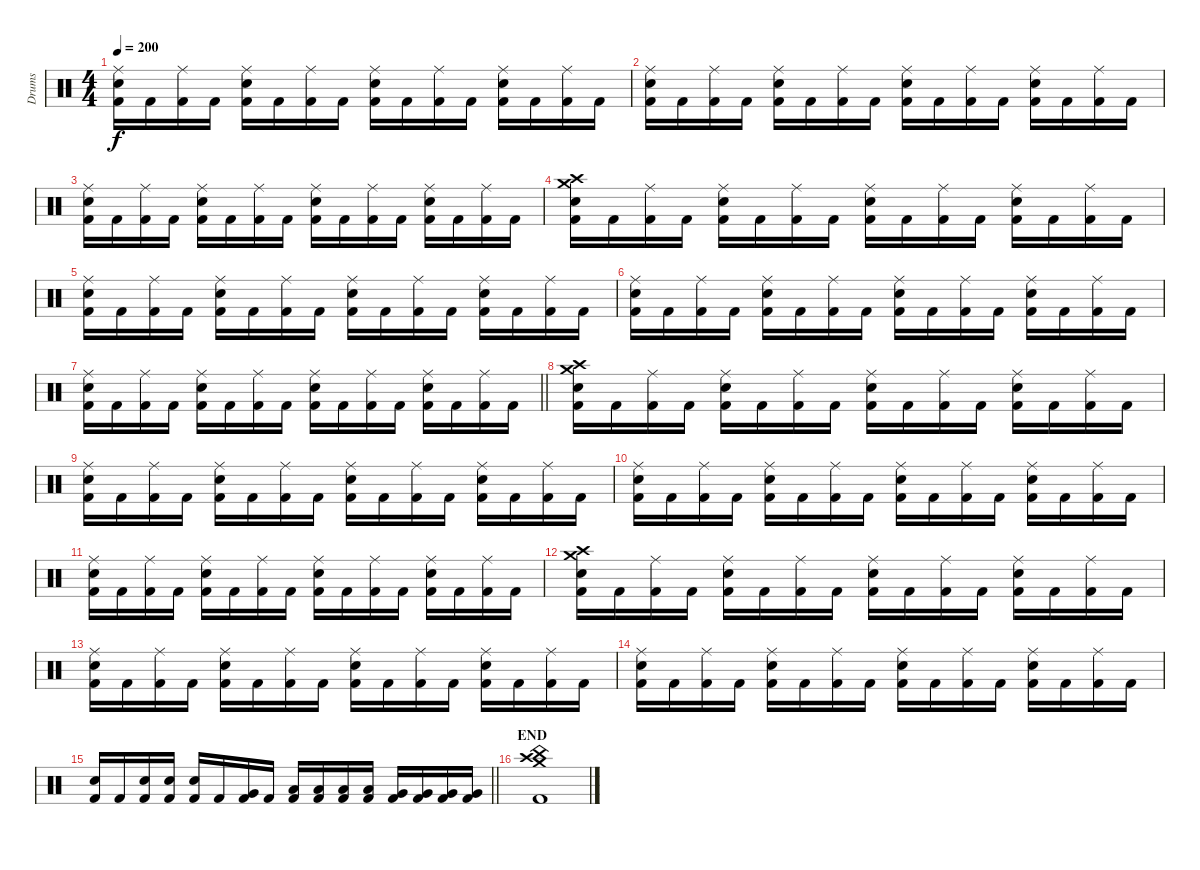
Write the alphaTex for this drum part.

\track ("Drums" "Drums") {instrument percussion}
\staff {score}
\articulation defaults
\ts (4 4)
\tempo 200
\clef neutral
\ks c
("Ride (middle)" "Electric Snare (hit)" "Kick (hit) 2").16{dy f} "Kick (hit) 2".16 ("Ride (middle)" "Kick (hit) 2").16 "Kick (hit) 2".16 ("Ride (middle)" "Electric Snare (hit)" "Kick (hit) 2").16 "Kick (hit) 2".16 ("Ride (middle)" "Kick (hit) 2").16 "Kick (hit) 2".16 ("Ride (middle)" "Electric Snare (hit)" "Kick (hit) 2").16 "Kick (hit) 2".16 ("Ride (middle)" "Kick (hit) 2").16 "Kick (hit) 2".16 ("Ride (middle)" "Electric Snare (hit)" "Kick (hit) 2").16 "Kick (hit) 2".16 ("Ride (middle)" "Kick (hit) 2").16 "Kick (hit) 2".16 |
("Ride (middle)" "Electric Snare (hit)" "Kick (hit) 2").16 "Kick (hit) 2".16 ("Ride (middle)" "Kick (hit) 2").16 "Kick (hit) 2".16 ("Ride (middle)" "Electric Snare (hit)" "Kick (hit) 2").16 "Kick (hit) 2".16 ("Ride (middle)" "Kick (hit) 2").16 "Kick (hit) 2".16 ("Ride (middle)" "Electric Snare (hit)" "Kick (hit) 2").16 "Kick (hit) 2".16 ("Ride (middle)" "Kick (hit) 2").16 "Kick (hit) 2".16 ("Ride (middle)" "Electric Snare (hit)" "Kick (hit) 2").16 "Kick (hit) 2".16 ("Ride (middle)" "Kick (hit) 2").16 "Kick (hit) 2".16 |
("Ride (middle)" "Electric Snare (hit)" "Kick (hit) 2").16 "Kick (hit) 2".16 ("Ride (middle)" "Kick (hit) 2").16 "Kick (hit) 2".16 ("Ride (middle)" "Electric Snare (hit)" "Kick (hit) 2").16 "Kick (hit) 2".16 ("Ride (middle)" "Kick (hit) 2").16 "Kick (hit) 2".16 ("Ride (middle)" "Electric Snare (hit)" "Kick (hit) 2").16 "Kick (hit) 2".16 ("Ride (middle)" "Kick (hit) 2").16 "Kick (hit) 2".16 ("Ride (middle)" "Electric Snare (hit)" "Kick (hit) 2").16 "Kick (hit) 2".16 ("Ride (middle)" "Kick (hit) 2").16 "Kick (hit) 2".16 |
("Crash medium (hit)" "Crash high (hit)" "Electric Snare (hit)" "Kick (hit) 2").16 "Kick (hit) 2".16 ("Ride (middle)" "Kick (hit) 2").16 "Kick (hit) 2".16 ("Ride (middle)" "Electric Snare (hit)" "Kick (hit) 2").16 "Kick (hit) 2".16 ("Ride (middle)" "Kick (hit) 2").16 "Kick (hit) 2".16 ("Ride (middle)" "Electric Snare (hit)" "Kick (hit) 2").16 "Kick (hit) 2".16 ("Ride (middle)" "Kick (hit) 2").16 "Kick (hit) 2".16 ("Ride (middle)" "Electric Snare (hit)" "Kick (hit) 2").16 "Kick (hit) 2".16 ("Ride (middle)" "Kick (hit) 2").16 "Kick (hit) 2".16 |
("Ride (middle)" "Electric Snare (hit)" "Kick (hit) 2").16 "Kick (hit) 2".16 ("Ride (middle)" "Kick (hit) 2").16 "Kick (hit) 2".16 ("Ride (middle)" "Electric Snare (hit)" "Kick (hit) 2").16 "Kick (hit) 2".16 ("Ride (middle)" "Kick (hit) 2").16 "Kick (hit) 2".16 ("Ride (middle)" "Electric Snare (hit)" "Kick (hit) 2").16 "Kick (hit) 2".16 ("Ride (middle)" "Kick (hit) 2").16 "Kick (hit) 2".16 ("Ride (middle)" "Electric Snare (hit)" "Kick (hit) 2").16 "Kick (hit) 2".16 ("Ride (middle)" "Kick (hit) 2").16 "Kick (hit) 2".16 |
("Ride (middle)" "Electric Snare (hit)" "Kick (hit) 2").16 "Kick (hit) 2".16 ("Ride (middle)" "Kick (hit) 2").16 "Kick (hit) 2".16 ("Ride (middle)" "Electric Snare (hit)" "Kick (hit) 2").16 "Kick (hit) 2".16 ("Ride (middle)" "Kick (hit) 2").16 "Kick (hit) 2".16 ("Ride (middle)" "Electric Snare (hit)" "Kick (hit) 2").16 "Kick (hit) 2".16 ("Ride (middle)" "Kick (hit) 2").16 "Kick (hit) 2".16 ("Ride (middle)" "Electric Snare (hit)" "Kick (hit) 2").16 "Kick (hit) 2".16 ("Ride (middle)" "Kick (hit) 2").16 "Kick (hit) 2".16 |
\barLineRight lightlight
("Ride (middle)" "Electric Snare (hit)" "Kick (hit) 2").16 "Kick (hit) 2".16 ("Ride (middle)" "Kick (hit) 2").16 "Kick (hit) 2".16 ("Ride (middle)" "Electric Snare (hit)" "Kick (hit) 2").16 "Kick (hit) 2".16 ("Ride (middle)" "Kick (hit) 2").16 "Kick (hit) 2".16 ("Ride (middle)" "Electric Snare (hit)" "Kick (hit) 2").16 "Kick (hit) 2".16 ("Ride (middle)" "Kick (hit) 2").16 "Kick (hit) 2".16 ("Ride (middle)" "Electric Snare (hit)" "Kick (hit) 2").16 "Kick (hit) 2".16 ("Ride (middle)" "Kick (hit) 2").16 "Kick (hit) 2".16 |
("Crash medium (hit)" "Crash high (hit)" "Electric Snare (hit)" "Kick (hit) 2").16 "Kick (hit) 2".16 ("Ride (middle)" "Kick (hit) 2").16 "Kick (hit) 2".16 ("Ride (middle)" "Electric Snare (hit)" "Kick (hit) 2").16 "Kick (hit) 2".16 ("Ride (middle)" "Kick (hit) 2").16 "Kick (hit) 2".16 ("Ride (middle)" "Electric Snare (hit)" "Kick (hit) 2").16 "Kick (hit) 2".16 ("Ride (middle)" "Kick (hit) 2").16 "Kick (hit) 2".16 ("Ride (middle)" "Electric Snare (hit)" "Kick (hit) 2").16 "Kick (hit) 2".16 ("Ride (middle)" "Kick (hit) 2").16 "Kick (hit) 2".16 |
("Ride (middle)" "Electric Snare (hit)" "Kick (hit) 2").16 "Kick (hit) 2".16 ("Ride (middle)" "Kick (hit) 2").16 "Kick (hit) 2".16 ("Ride (middle)" "Electric Snare (hit)" "Kick (hit) 2").16 "Kick (hit) 2".16 ("Ride (middle)" "Kick (hit) 2").16 "Kick (hit) 2".16 ("Ride (middle)" "Electric Snare (hit)" "Kick (hit) 2").16 "Kick (hit) 2".16 ("Ride (middle)" "Kick (hit) 2").16 "Kick (hit) 2".16 ("Ride (middle)" "Electric Snare (hit)" "Kick (hit) 2").16 "Kick (hit) 2".16 ("Ride (middle)" "Kick (hit) 2").16 "Kick (hit) 2".16 |
("Ride (middle)" "Electric Snare (hit)" "Kick (hit) 2").16 "Kick (hit) 2".16 ("Ride (middle)" "Kick (hit) 2").16 "Kick (hit) 2".16 ("Ride (middle)" "Electric Snare (hit)" "Kick (hit) 2").16 "Kick (hit) 2".16 ("Ride (middle)" "Kick (hit) 2").16 "Kick (hit) 2".16 ("Ride (middle)" "Electric Snare (hit)" "Kick (hit) 2").16 "Kick (hit) 2".16 ("Ride (middle)" "Kick (hit) 2").16 "Kick (hit) 2".16 ("Ride (middle)" "Electric Snare (hit)" "Kick (hit) 2").16 "Kick (hit) 2".16 ("Ride (middle)" "Kick (hit) 2").16 "Kick (hit) 2".16 |
("Ride (middle)" "Electric Snare (hit)" "Kick (hit) 2").16 "Kick (hit) 2".16 ("Ride (middle)" "Kick (hit) 2").16 "Kick (hit) 2".16 ("Ride (middle)" "Electric Snare (hit)" "Kick (hit) 2").16 "Kick (hit) 2".16 ("Ride (middle)" "Kick (hit) 2").16 "Kick (hit) 2".16 ("Ride (middle)" "Electric Snare (hit)" "Kick (hit) 2").16 "Kick (hit) 2".16 ("Ride (middle)" "Kick (hit) 2").16 "Kick (hit) 2".16 ("Ride (middle)" "Electric Snare (hit)" "Kick (hit) 2").16 "Kick (hit) 2".16 ("Ride (middle)" "Kick (hit) 2").16 "Kick (hit) 2".16 |
("Crash medium (hit)" "Crash high (hit)" "Electric Snare (hit)" "Kick (hit) 2").16 "Kick (hit) 2".16 ("Ride (middle)" "Kick (hit) 2").16 "Kick (hit) 2".16 ("Ride (middle)" "Electric Snare (hit)" "Kick (hit) 2").16 "Kick (hit) 2".16 ("Ride (middle)" "Kick (hit) 2").16 "Kick (hit) 2".16 ("Ride (middle)" "Electric Snare (hit)" "Kick (hit) 2").16 "Kick (hit) 2".16 ("Ride (middle)" "Kick (hit) 2").16 "Kick (hit) 2".16 ("Ride (middle)" "Electric Snare (hit)" "Kick (hit) 2").16 "Kick (hit) 2".16 ("Ride (middle)" "Kick (hit) 2").16 "Kick (hit) 2".16 |
("Ride (middle)" "Electric Snare (hit)" "Kick (hit) 2").16 "Kick (hit) 2".16 ("Ride (middle)" "Kick (hit) 2").16 "Kick (hit) 2".16 ("Ride (middle)" "Electric Snare (hit)" "Kick (hit) 2").16 "Kick (hit) 2".16 ("Ride (middle)" "Kick (hit) 2").16 "Kick (hit) 2".16 ("Ride (middle)" "Electric Snare (hit)" "Kick (hit) 2").16 "Kick (hit) 2".16 ("Ride (middle)" "Kick (hit) 2").16 "Kick (hit) 2".16 ("Ride (middle)" "Electric Snare (hit)" "Kick (hit) 2").16 "Kick (hit) 2".16 ("Ride (middle)" "Kick (hit) 2").16 "Kick (hit) 2".16 |
("Ride (middle)" "Electric Snare (hit)" "Kick (hit) 2").16 "Kick (hit) 2".16 ("Ride (middle)" "Kick (hit) 2").16 "Kick (hit) 2".16 ("Ride (middle)" "Electric Snare (hit)" "Kick (hit) 2").16 "Kick (hit) 2".16 ("Ride (middle)" "Kick (hit) 2").16 "Kick (hit) 2".16 ("Ride (middle)" "Electric Snare (hit)" "Kick (hit) 2").16 "Kick (hit) 2".16 ("Ride (middle)" "Kick (hit) 2").16 "Kick (hit) 2".16 ("Ride (middle)" "Electric Snare (hit)" "Kick (hit) 2").16 "Kick (hit) 2".16 ("Ride (middle)" "Kick (hit) 2").16 "Kick (hit) 2".16 |
\barLineRight lightlight
("Electric Snare (hit)" "Kick (hit) 2").16 "Kick (hit) 2".16 ("Electric Snare (hit)" "Kick (hit) 2").16 ("Electric Snare (hit)" "Kick (hit) 2").16 ("Electric Snare (hit)" "Kick (hit) 2").16 "Kick (hit) 2".16 ("Very Low Tom (hit)" "Kick (hit) 2").16 "Kick (hit) 2".16 ("Low Tom (hit)" "Kick (hit) 2").16 ("Low Tom (hit)" "Kick (hit) 2").16 ("Low Tom (hit)" "Kick (hit) 2").16 ("Low Tom (hit)" "Kick (hit) 2").16 ("Very Low Tom (hit)" "Kick (hit) 2").16 ("Very Low Tom (hit)" "Kick (hit) 2").16 ("Very Low Tom (hit)" "Kick (hit) 2").16 ("Very Low Tom (hit)" "Kick (hit) 2").16 |
\section ("" "END")
("Crash high (hit)" "Crash medium (hit)" "China (hit)" "Kick (hit) 2").1
